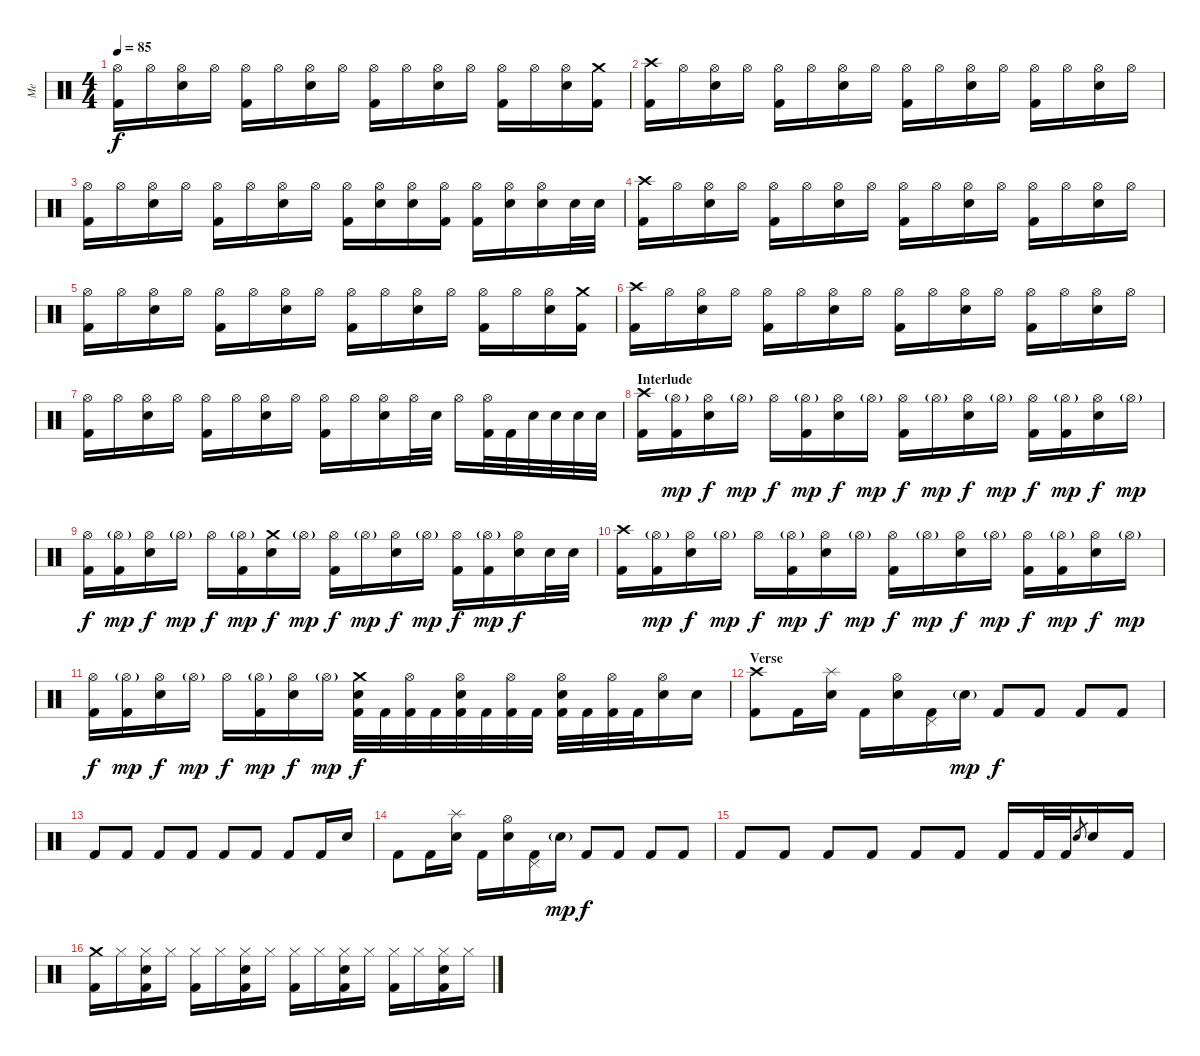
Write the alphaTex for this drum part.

\track ("Me" "Me") {instrument percussion}
\staff {score}
\articulation defaults
\ts (4 4)
\tempo 85
\clef neutral
\ks c
("Hi-Hat (open)" "Kick (hit) 2").16{dy f} "Hi-Hat (open)".16 ("Hi-Hat (open)" "Electric Snare (hit)").16 "Hi-Hat (open)".16 ("Hi-Hat (open)" "Kick (hit) 2").16 "Hi-Hat (open)".16 ("Hi-Hat (open)" "Electric Snare (hit)").16 "Hi-Hat (open)".16 ("Hi-Hat (open)" "Kick (hit) 2").16 "Hi-Hat (open)".16 ("Hi-Hat (open)" "Electric Snare (hit)").16 "Hi-Hat (open)".16 ("Hi-Hat (open)" "Kick (hit) 2").16 "Hi-Hat (open)".16 ("Hi-Hat (open)" "Electric Snare (hit)").16 ("Crash medium (hit)" "Kick (hit) 2").16 |
("Crash high (hit)" "Kick (hit) 2").16 "Hi-Hat (open)".16 ("Hi-Hat (open)" "Electric Snare (hit)").16 "Hi-Hat (open)".16 ("Hi-Hat (open)" "Kick (hit) 2").16 "Hi-Hat (open)".16 ("Hi-Hat (open)" "Electric Snare (hit)").16 "Hi-Hat (open)".16 ("Hi-Hat (open)" "Kick (hit) 2").16 "Hi-Hat (open)".16 ("Hi-Hat (open)" "Electric Snare (hit)").16 "Hi-Hat (open)".16 ("Hi-Hat (open)" "Kick (hit) 2").16 "Hi-Hat (open)".16 ("Hi-Hat (open)" "Electric Snare (hit)").16 "Hi-Hat (open)".16 |
("Hi-Hat (open)" "Kick (hit) 2").16 "Hi-Hat (open)".16 ("Hi-Hat (open)" "Electric Snare (hit)").16 "Hi-Hat (open)".16 ("Hi-Hat (open)" "Kick (hit) 2").16 "Hi-Hat (open)".16 ("Hi-Hat (open)" "Electric Snare (hit)").16 "Hi-Hat (open)".16 ("Hi-Hat (open)" "Kick (hit) 2").16 ("Hi-Hat (open)" "Electric Snare (hit)").16 ("Hi-Hat (open)" "Electric Snare (hit)").16 ("Hi-Hat (open)" "Kick (hit) 2").16 ("Hi-Hat (open)" "Kick (hit) 2").16 ("Hi-Hat (open)" "Electric Snare (hit)").16 ("Hi-Hat (open)" "Electric Snare (hit)").16 "Electric Snare (hit)".32 "Electric Snare (hit)".32 |
("Crash high (hit)" "Kick (hit) 2").16 "Hi-Hat (open)".16 ("Hi-Hat (open)" "Electric Snare (hit)").16 "Hi-Hat (open)".16 ("Hi-Hat (open)" "Kick (hit) 2").16 "Hi-Hat (open)".16 ("Hi-Hat (open)" "Electric Snare (hit)").16 "Hi-Hat (open)".16 ("Hi-Hat (open)" "Kick (hit) 2").16 "Hi-Hat (open)".16 ("Hi-Hat (open)" "Electric Snare (hit)").16 "Hi-Hat (open)".16 ("Hi-Hat (open)" "Kick (hit) 2").16 "Hi-Hat (open)".16 ("Hi-Hat (open)" "Electric Snare (hit)").16 "Hi-Hat (open)".16 |
("Hi-Hat (open)" "Kick (hit) 2").16 "Hi-Hat (open)".16 ("Hi-Hat (open)" "Electric Snare (hit)").16 "Hi-Hat (open)".16 ("Hi-Hat (open)" "Kick (hit) 2").16 "Hi-Hat (open)".16 ("Hi-Hat (open)" "Electric Snare (hit)").16 "Hi-Hat (open)".16 ("Hi-Hat (open)" "Kick (hit) 2").16 "Hi-Hat (open)".16 ("Hi-Hat (open)" "Electric Snare (hit)").16 "Hi-Hat (open)".16 ("Hi-Hat (open)" "Kick (hit) 2").16 "Hi-Hat (open)".16 ("Hi-Hat (open)" "Electric Snare (hit)").16 ("Crash medium (hit)" "Kick (hit) 2").16 |
("Crash high (hit)" "Kick (hit) 2").16 "Hi-Hat (open)".16 ("Hi-Hat (open)" "Electric Snare (hit)").16 "Hi-Hat (open)".16 ("Hi-Hat (open)" "Kick (hit) 2").16 "Hi-Hat (open)".16 ("Hi-Hat (open)" "Electric Snare (hit)").16 "Hi-Hat (open)".16 ("Hi-Hat (open)" "Kick (hit) 2").16 "Hi-Hat (open)".16 ("Hi-Hat (open)" "Electric Snare (hit)").16 "Hi-Hat (open)".16 ("Hi-Hat (open)" "Kick (hit) 2").16 "Hi-Hat (open)".16 ("Hi-Hat (open)" "Electric Snare (hit)").16 "Hi-Hat (open)".16 |
("Hi-Hat (open)" "Kick (hit) 2").16 "Hi-Hat (open)".16 ("Hi-Hat (open)" "Electric Snare (hit)").16 "Hi-Hat (open)".16 ("Hi-Hat (open)" "Kick (hit) 2").16 "Hi-Hat (open)".16 ("Hi-Hat (open)" "Electric Snare (hit)").16 "Hi-Hat (open)".16 ("Hi-Hat (open)" "Kick (hit) 2").16 "Hi-Hat (open)".16 ("Hi-Hat (open)" "Electric Snare (hit)").16 "Hi-Hat (open)".32 "Electric Snare (hit)".32 "Hi-Hat (open)".16 ("Hi-Hat (open)" "Kick (hit) 2").32 "Kick (hit) 2".32 "Electric Snare (hit)".32 "Electric Snare (hit)".32 "Electric Snare (hit)".32 "Electric Snare (hit)".32 |
\section ("" "Interlude")
("Crash high (hit)" "Kick (hit) 2").16 ("Hi-Hat (open)"{g} "Kick (hit) 2").16{dy mp} ("Hi-Hat (open)" "Electric Snare (hit)").16{dy f} "Hi-Hat (open)"{g}.16{dy mp} "Hi-Hat (open)".16{dy f} ("Hi-Hat (open)"{g} "Kick (hit) 2").16{dy mp} ("Hi-Hat (open)" "Electric Snare (hit)").16{dy f} "Hi-Hat (open)"{g}.16{dy mp} ("Hi-Hat (open)" "Kick (hit) 2").16{dy f} "Hi-Hat (open)"{g}.16{dy mp} ("Hi-Hat (open)" "Electric Snare (hit)").16{dy f} "Hi-Hat (open)"{g}.16{dy mp} ("Hi-Hat (open)" "Kick (hit) 2").16{dy f} ("Hi-Hat (open)"{g} "Kick (hit) 2").16{dy mp} ("Hi-Hat (open)" "Electric Snare (hit)").16{dy f} "Hi-Hat (open)"{g}.16{dy mp} |
("Hi-Hat (open)" "Kick (hit) 2").16{dy f} ("Hi-Hat (open)"{g} "Kick (hit) 2").16{dy mp} ("Hi-Hat (open)" "Electric Snare (hit)").16{dy f} "Hi-Hat (open)"{g}.16{dy mp} "Hi-Hat (open)".16{dy f} ("Hi-Hat (open)"{g} "Kick (hit) 2").16{dy mp} ("Crash medium (hit)" "Electric Snare (hit)").16{dy f} "Hi-Hat (open)"{g}.16{dy mp} ("Hi-Hat (open)" "Kick (hit) 2").16{dy f} "Hi-Hat (open)"{g}.16{dy mp} ("Hi-Hat (open)" "Electric Snare (hit)").16{dy f} "Hi-Hat (open)"{g}.16{dy mp} ("Hi-Hat (open)" "Kick (hit) 2").16{dy f} ("Hi-Hat (open)"{g} "Kick (hit) 2").16{dy mp} ("Hi-Hat (open)" "Electric Snare (hit)").16{dy f} "Electric Snare (hit)".32 "Electric Snare (hit)".32 |
("Crash high (hit)" "Kick (hit) 2").16 ("Hi-Hat (open)"{g} "Kick (hit) 2").16{dy mp} ("Hi-Hat (open)" "Electric Snare (hit)").16{dy f} "Hi-Hat (open)"{g}.16{dy mp} "Hi-Hat (open)".16{dy f} ("Hi-Hat (open)"{g} "Kick (hit) 2").16{dy mp} ("Hi-Hat (open)" "Electric Snare (hit)").16{dy f} "Hi-Hat (open)"{g}.16{dy mp} ("Hi-Hat (open)" "Kick (hit) 2").16{dy f} "Hi-Hat (open)"{g}.16{dy mp} ("Hi-Hat (open)" "Electric Snare (hit)").16{dy f} "Hi-Hat (open)"{g}.16{dy mp} ("Hi-Hat (open)" "Kick (hit) 2").16{dy f} ("Hi-Hat (open)"{g} "Kick (hit) 2").16{dy mp} ("Hi-Hat (open)" "Electric Snare (hit)").16{dy f} "Hi-Hat (open)"{g}.16{dy mp} |
("Hi-Hat (open)" "Kick (hit) 2").16{dy f} ("Hi-Hat (open)"{g} "Kick (hit) 2").16{dy mp} ("Hi-Hat (open)" "Electric Snare (hit)").16{dy f} "Hi-Hat (open)"{g}.16{dy mp} "Hi-Hat (open)".16{dy f} ("Hi-Hat (open)"{g} "Kick (hit) 2").16{dy mp} ("Hi-Hat (open)" "Electric Snare (hit)").16{dy f} "Hi-Hat (open)"{g}.16{dy mp} ("Crash medium (hit)" "Electric Snare (hit)" "Kick (hit) 2").32{dy f} "Kick (hit) 2".32 ("Hi-Hat (open)" "Kick (hit) 2").32 "Kick (hit) 2".32 ("Hi-Hat (open)" "Electric Snare (hit)" "Kick (hit) 2").32 "Kick (hit) 2".32 ("Hi-Hat (open)" "Kick (hit) 2").32 "Kick (hit) 2".32 ("Hi-Hat (open)" "Electric Snare (hit)" "Kick (hit) 2").32 "Kick (hit) 2".32 ("Hi-Hat (open)" "Kick (hit) 2").32 "Kick (hit) 2".32 ("Hi-Hat (open)" "Electric Snare (hit)").16 "Electric Snare (hit)".16 |
\section ("" "Verse")
("Crash high (hit)" "Kick (hit) 2").8 "Kick (hit) 2".16 ("Splash (hit)" "Electric Snare (hit)").16 "Kick (hit) 2".16 ("Hi-Hat (open)" "Electric Snare (hit)").16 ("Pedal Hi-Hat (hit)" "Kick (hit) 2").16 "Electric Snare (hit)"{g}.16{dy mp} "Kick (hit) 2".8{dy f} "Kick (hit) 2".8 "Kick (hit) 2".8 "Kick (hit) 2".8 |
"Kick (hit) 2".8 "Kick (hit) 2".8 "Kick (hit) 2".8 "Kick (hit) 2".8 "Kick (hit) 2".8 "Kick (hit) 2".8 "Kick (hit) 2".8 "Kick (hit) 2".16 "Electric Snare (hit)".16 |
"Kick (hit) 2".8 "Kick (hit) 2".16 ("Splash (hit)" "Electric Snare (hit)").16 "Kick (hit) 2".16 ("Hi-Hat (open)" "Electric Snare (hit)").16 ("Pedal Hi-Hat (hit)" "Kick (hit) 2").16 "Electric Snare (hit)"{g}.16{dy mp} "Kick (hit) 2".8{dy f} "Kick (hit) 2".8 "Kick (hit) 2".8 "Kick (hit) 2".8 |
"Kick (hit) 2".8 "Kick (hit) 2".8 "Kick (hit) 2".8 "Kick (hit) 2".8 "Kick (hit) 2".8 "Kick (hit) 2".8 "Kick (hit) 2".16 "Kick (hit) 2".32 "Kick (hit) 2".32 "Electric Snare (hit)".8{gr} "Electric Snare (hit)".16 "Kick (hit) 2".16 |
("Crash medium (hit)" "Kick (hit) 2").16 "Hi-Hat (closed)".16 ("Hi-Hat (closed)" "Electric Snare (hit)" "Kick (hit) 2").16 "Hi-Hat (closed)".16 ("Hi-Hat (closed)" "Kick (hit) 2").16 "Hi-Hat (closed)".16 ("Hi-Hat (closed)" "Electric Snare (hit)" "Kick (hit) 2").16 "Hi-Hat (closed)".16 ("Hi-Hat (closed)" "Kick (hit) 2").16 "Hi-Hat (closed)".16 ("Hi-Hat (closed)" "Electric Snare (hit)" "Kick (hit) 2").16 "Hi-Hat (closed)".16 ("Hi-Hat (closed)" "Kick (hit) 2").16 "Hi-Hat (closed)".16 ("Hi-Hat (closed)" "Electric Snare (hit)" "Kick (hit) 2").16 "Hi-Hat (closed)".16
